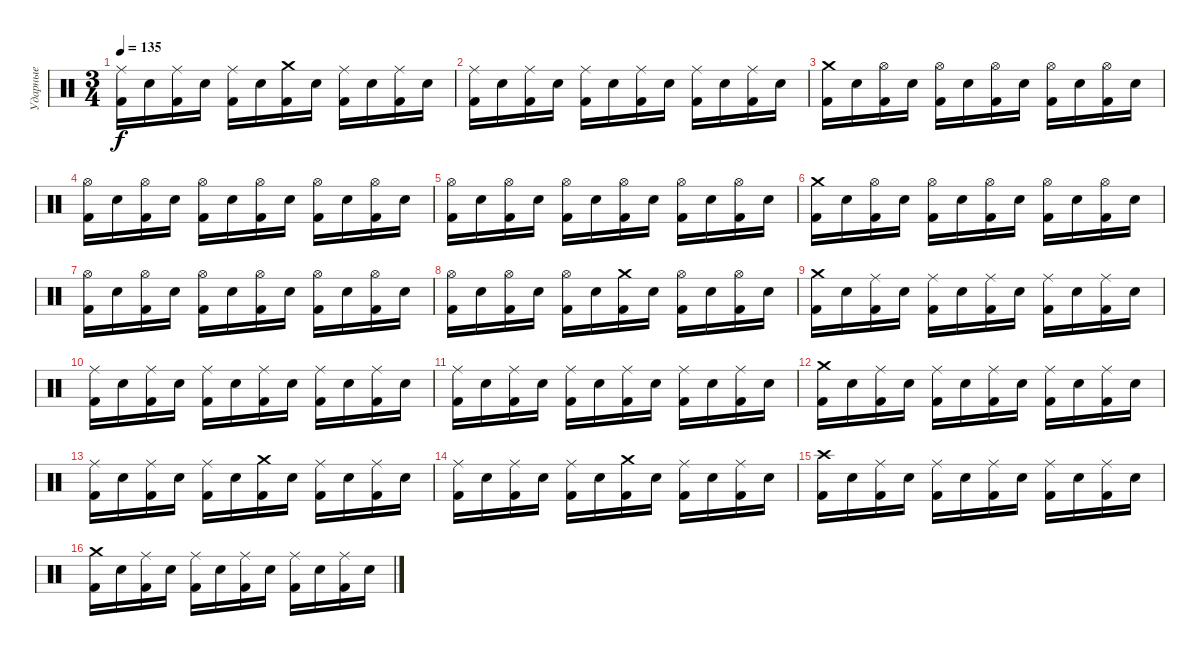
\track ("Ударные" "Ударные") {instrument percussion}
\staff {score}
\articulation defaults
\ts (3 4)
\tempo 135
\clef neutral
\ks c
("Ride (middle)" "Kick (hit) 2").16{dy f} "Electric Snare (hit)".16 ("Ride (middle)" "Kick (hit) 2").16 "Electric Snare (hit)".16 ("Ride (middle)" "Kick (hit) 2").16 "Electric Snare (hit)".16 ("Crash medium (hit)" "Kick (hit) 2").16 "Electric Snare (hit)".16 ("Ride (middle)" "Kick (hit) 2").16 "Electric Snare (hit)".16 ("Ride (middle)" "Kick (hit) 2").16 "Electric Snare (hit)".16 |
("Ride (middle)" "Kick (hit) 2").16 "Electric Snare (hit)".16 ("Ride (middle)" "Kick (hit) 2").16 "Electric Snare (hit)".16 ("Ride (middle)" "Kick (hit) 2").16 "Electric Snare (hit)".16 ("Ride (middle)" "Kick (hit) 2").16 "Electric Snare (hit)".16 ("Ride (middle)" "Kick (hit) 2").16 "Electric Snare (hit)".16 ("Ride (middle)" "Kick (hit) 2").16 "Electric Snare (hit)".16 |
("Crash medium (hit)" "Kick (hit) 2").16 "Electric Snare (hit)".16 ("Hi-Hat (open)" "Kick (hit) 2").16 "Electric Snare (hit)".16 ("Hi-Hat (open)" "Kick (hit) 2").16 "Electric Snare (hit)".16 ("Hi-Hat (open)" "Kick (hit) 2").16 "Electric Snare (hit)".16 ("Hi-Hat (open)" "Kick (hit) 2").16 "Electric Snare (hit)".16 ("Hi-Hat (open)" "Kick (hit) 2").16 "Electric Snare (hit)".16 |
("Hi-Hat (open)" "Kick (hit) 2").16 "Electric Snare (hit)".16 ("Hi-Hat (open)" "Kick (hit) 2").16 "Electric Snare (hit)".16 ("Hi-Hat (open)" "Kick (hit) 2").16 "Electric Snare (hit)".16 ("Hi-Hat (open)" "Kick (hit) 2").16 "Electric Snare (hit)".16 ("Hi-Hat (open)" "Kick (hit) 2").16 "Electric Snare (hit)".16 ("Hi-Hat (open)" "Kick (hit) 2").16 "Electric Snare (hit)".16 |
("Hi-Hat (open)" "Kick (hit) 2").16 "Electric Snare (hit)".16 ("Hi-Hat (open)" "Kick (hit) 2").16 "Electric Snare (hit)".16 ("Hi-Hat (open)" "Kick (hit) 2").16 "Electric Snare (hit)".16 ("Hi-Hat (open)" "Kick (hit) 2").16 "Electric Snare (hit)".16 ("Hi-Hat (open)" "Kick (hit) 2").16 "Electric Snare (hit)".16 ("Hi-Hat (open)" "Kick (hit) 2").16 "Electric Snare (hit)".16 |
("Crash medium (hit)" "Kick (hit) 2").16 "Electric Snare (hit)".16 ("Hi-Hat (open)" "Kick (hit) 2").16 "Electric Snare (hit)".16 ("Hi-Hat (open)" "Kick (hit) 2").16 "Electric Snare (hit)".16 ("Hi-Hat (open)" "Kick (hit) 2").16 "Electric Snare (hit)".16 ("Hi-Hat (open)" "Kick (hit) 2").16 "Electric Snare (hit)".16 ("Hi-Hat (open)" "Kick (hit) 2").16 "Electric Snare (hit)".16 |
("Hi-Hat (open)" "Kick (hit) 2").16 "Electric Snare (hit)".16 ("Hi-Hat (open)" "Kick (hit) 2").16 "Electric Snare (hit)".16 ("Hi-Hat (open)" "Kick (hit) 2").16 "Electric Snare (hit)".16 ("Hi-Hat (open)" "Kick (hit) 2").16 "Electric Snare (hit)".16 ("Hi-Hat (open)" "Kick (hit) 2").16 "Electric Snare (hit)".16 ("Hi-Hat (open)" "Kick (hit) 2").16 "Electric Snare (hit)".16 |
("Hi-Hat (open)" "Kick (hit) 2").16 "Electric Snare (hit)".16 ("Hi-Hat (open)" "Kick (hit) 2").16 "Electric Snare (hit)".16 ("Hi-Hat (open)" "Kick (hit) 2").16 "Electric Snare (hit)".16 ("Crash medium (hit)" "Kick (hit) 2").16 "Electric Snare (hit)".16 ("Hi-Hat (open)" "Kick (hit) 2").16 "Electric Snare (hit)".16 ("Hi-Hat (open)" "Kick (hit) 2").16 "Electric Snare (hit)".16 |
("Crash medium (hit)" "Kick (hit) 2").16 "Electric Snare (hit)".16 ("Ride (middle)" "Kick (hit) 2").16 "Electric Snare (hit)".16 ("Ride (middle)" "Kick (hit) 2").16 "Electric Snare (hit)".16 ("Ride (middle)" "Kick (hit) 2").16 "Electric Snare (hit)".16 ("Ride (middle)" "Kick (hit) 2").16 "Electric Snare (hit)".16 ("Ride (middle)" "Kick (hit) 2").16 "Electric Snare (hit)".16 |
("Ride (middle)" "Kick (hit) 2").16 "Electric Snare (hit)".16 ("Ride (middle)" "Kick (hit) 2").16 "Electric Snare (hit)".16 ("Ride (middle)" "Kick (hit) 2").16 "Electric Snare (hit)".16 ("Ride (middle)" "Kick (hit) 2").16 "Electric Snare (hit)".16 ("Ride (middle)" "Kick (hit) 2").16 "Electric Snare (hit)".16 ("Ride (middle)" "Kick (hit) 2").16 "Electric Snare (hit)".16 |
("Ride (middle)" "Kick (hit) 2").16 "Electric Snare (hit)".16 ("Ride (middle)" "Kick (hit) 2").16 "Electric Snare (hit)".16 ("Ride (middle)" "Kick (hit) 2").16 "Electric Snare (hit)".16 ("Ride (middle)" "Kick (hit) 2").16 "Electric Snare (hit)".16 ("Ride (middle)" "Kick (hit) 2").16 "Electric Snare (hit)".16 ("Ride (middle)" "Kick (hit) 2").16 "Electric Snare (hit)".16 |
("Crash medium (hit)" "Kick (hit) 2").16 "Electric Snare (hit)".16 ("Ride (middle)" "Kick (hit) 2").16 "Electric Snare (hit)".16 ("Ride (middle)" "Kick (hit) 2").16 "Electric Snare (hit)".16 ("Ride (middle)" "Kick (hit) 2").16 "Electric Snare (hit)".16 ("Ride (middle)" "Kick (hit) 2").16 "Electric Snare (hit)".16 ("Ride (middle)" "Kick (hit) 2").16 "Electric Snare (hit)".16 |
("Ride (middle)" "Kick (hit) 2").16 "Electric Snare (hit)".16 ("Ride (middle)" "Kick (hit) 2").16 "Electric Snare (hit)".16 ("Ride (middle)" "Kick (hit) 2").16 "Electric Snare (hit)".16 ("Crash medium (hit)" "Kick (hit) 2").16 "Electric Snare (hit)".16 ("Ride (middle)" "Kick (hit) 2").16 "Electric Snare (hit)".16 ("Ride (middle)" "Kick (hit) 2").16 "Electric Snare (hit)".16 |
("Ride (middle)" "Kick (hit) 2").16 "Electric Snare (hit)".16 ("Ride (middle)" "Kick (hit) 2").16 "Electric Snare (hit)".16 ("Ride (middle)" "Kick (hit) 2").16 "Electric Snare (hit)".16 ("Crash medium (hit)" "Kick (hit) 2").16 "Electric Snare (hit)".16 ("Ride (middle)" "Kick (hit) 2").16 "Electric Snare (hit)".16 ("Ride (middle)" "Kick (hit) 2").16 "Electric Snare (hit)".16 |
("Crash high (hit)" "Kick (hit) 2").16 "Electric Snare (hit)".16 ("Ride (middle)" "Kick (hit) 2").16 "Electric Snare (hit)".16 ("Ride (middle)" "Kick (hit) 2").16 "Electric Snare (hit)".16 ("Ride (middle)" "Kick (hit) 2").16 "Electric Snare (hit)".16 ("Ride (middle)" "Kick (hit) 2").16 "Electric Snare (hit)".16 ("Ride (middle)" "Kick (hit) 2").16 "Electric Snare (hit)".16 |
("Crash medium (hit)" "Kick (hit) 2").16 "Electric Snare (hit)".16 ("Ride (middle)" "Kick (hit) 2").16 "Electric Snare (hit)".16 ("Ride (middle)" "Kick (hit) 2").16 "Electric Snare (hit)".16 ("Ride (middle)" "Kick (hit) 2").16 "Electric Snare (hit)".16 ("Ride (middle)" "Kick (hit) 2").16 "Electric Snare (hit)".16 ("Ride (middle)" "Kick (hit) 2").16 "Electric Snare (hit)".16
